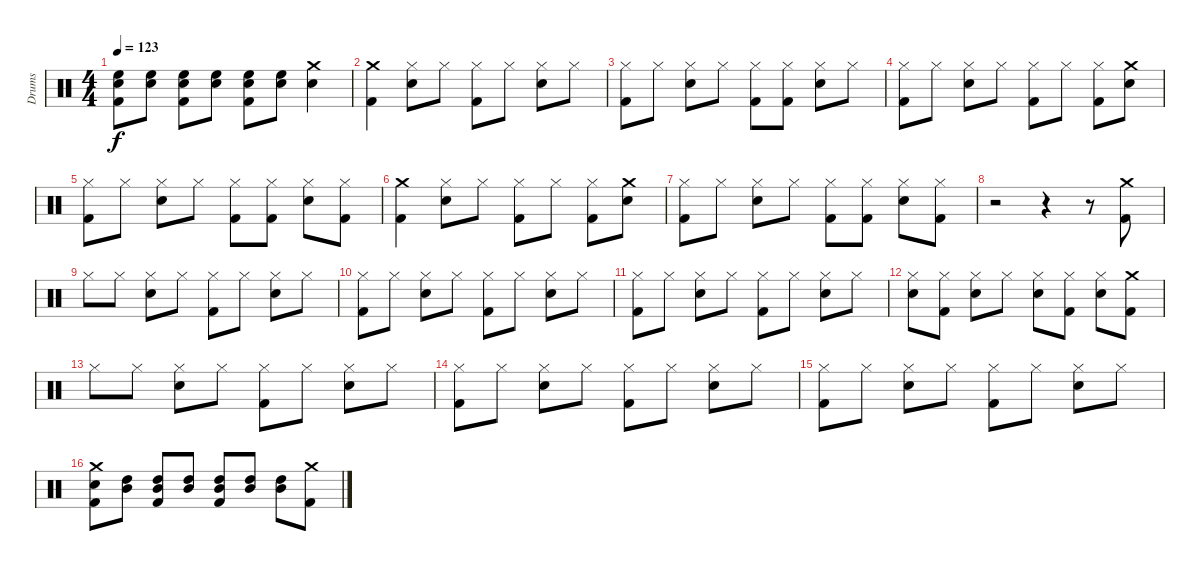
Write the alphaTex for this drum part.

\track ("Drums" "Drums") {instrument percussion}
\staff {score}
\articulation defaults
\ts (4 4)
\tempo 123
\clef neutral
\ks c
("Kick (hit) 2" "Snare (hit) 2" "High Floor Tom (hit)").8{dy f} ("Snare (hit) 2" "High Floor Tom (hit)").8 ("Kick (hit) 2" "Snare (hit) 2" "High Floor Tom (hit)").8 ("Snare (hit) 2" "High Floor Tom (hit)").8 ("Kick (hit) 2" "Snare (hit) 2" "High Floor Tom (hit)").8 ("Snare (hit) 2" "High Floor Tom (hit)").8 ("Crash medium (hit)" "Snare (hit) 2").4 |
("Kick (hit) 2" "Crash medium (hit)").4 ("Snare (hit) 2" "Hi-Hat (closed)").8 "Hi-Hat (closed)".8 ("Hi-Hat (closed)" "Kick (hit) 2").8 "Hi-Hat (closed)".8 ("Snare (hit) 2" "Hi-Hat (closed)").8 "Hi-Hat (closed)".8 |
("Hi-Hat (closed)" "Kick (hit) 2").8 "Hi-Hat (closed)".8 ("Snare (hit) 2" "Hi-Hat (closed)").8 "Hi-Hat (closed)".8 ("Kick (hit) 2" "Hi-Hat (closed)").8 ("Kick (hit) 2" "Hi-Hat (closed)").8 ("Snare (hit) 2" "Hi-Hat (closed)").8 "Hi-Hat (closed)".8 |
("Hi-Hat (closed)" "Kick (hit) 2").8 "Hi-Hat (closed)".8 ("Snare (hit) 2" "Hi-Hat (closed)").8 "Hi-Hat (closed)".8 ("Hi-Hat (closed)" "Kick (hit) 2").8 "Hi-Hat (closed)".8 ("Hi-Hat (closed)" "Kick (hit) 2").8 ("Crash medium (hit)" "Snare (hit) 2").8 |
("Hi-Hat (closed)" "Kick (hit) 2").8 "Hi-Hat (closed)".8 ("Snare (hit) 2" "Hi-Hat (closed)").8 "Hi-Hat (closed)".8 ("Kick (hit) 2" "Hi-Hat (closed)").8 ("Kick (hit) 2" "Hi-Hat (closed)").8 ("Snare (hit) 2" "Hi-Hat (closed)").8 ("Kick (hit) 2" "Hi-Hat (closed)").8 |
("Kick (hit) 2" "Crash medium (hit)").4 ("Hi-Hat (closed)" "Snare (hit) 2").8 "Hi-Hat (closed)".8 ("Kick (hit) 2" "Hi-Hat (closed)").8 "Hi-Hat (closed)".8 ("Kick (hit) 2" "Hi-Hat (closed)").8 ("Crash medium (hit)" "Snare (hit) 2").8 |
("Kick (hit) 2" "Hi-Hat (closed)").8 "Hi-Hat (closed)".8 ("Snare (hit) 2" "Hi-Hat (closed)").8 "Hi-Hat (closed)".8 ("Kick (hit) 2" "Hi-Hat (closed)").8 ("Kick (hit) 2" "Hi-Hat (closed)").8 ("Snare (hit) 2" "Hi-Hat (closed)").8 ("Kick (hit) 2" "Hi-Hat (closed)").8 |
r.2 r.4 r.8 ("Kick (hit) 2" "Crash medium (hit)").8 |
"Hi-Hat (closed)".8 "Hi-Hat (closed)".8 ("Snare (hit) 2" "Hi-Hat (closed)").8 "Hi-Hat (closed)".8 ("Kick (hit) 2" "Hi-Hat (closed)").8 "Hi-Hat (closed)".8 ("Snare (hit) 2" "Hi-Hat (closed)").8 "Hi-Hat (closed)".8 |
("Kick (hit) 2" "Hi-Hat (closed)").8 "Hi-Hat (closed)".8 ("Snare (hit) 2" "Hi-Hat (closed)").8 "Hi-Hat (closed)".8 ("Kick (hit) 2" "Hi-Hat (closed)").8 "Hi-Hat (closed)".8 ("Snare (hit) 2" "Hi-Hat (closed)").8 "Hi-Hat (closed)".8 |
("Kick (hit) 2" "Hi-Hat (closed)").8 "Hi-Hat (closed)".8 ("Snare (hit) 2" "Hi-Hat (closed)").8 "Hi-Hat (closed)".8 ("Kick (hit) 2" "Hi-Hat (closed)").8 "Hi-Hat (closed)".8 ("Snare (hit) 2" "Hi-Hat (closed)").8 "Hi-Hat (closed)".8 |
("Snare (hit) 2" "Hi-Hat (closed)").8 ("Kick (hit) 2" "Hi-Hat (closed)").8 ("Snare (hit) 2" "Hi-Hat (closed)").8 "Hi-Hat (closed)".8 ("Snare (hit) 2" "Hi-Hat (closed)").8 ("Kick (hit) 2" "Hi-Hat (closed)").8 ("Snare (hit) 2" "Hi-Hat (closed)").8 ("Kick (hit) 2" "Crash medium (hit)").8 |
"Hi-Hat (closed)".8 "Hi-Hat (closed)".8 ("Snare (hit) 2" "Hi-Hat (closed)").8 "Hi-Hat (closed)".8 ("Kick (hit) 2" "Hi-Hat (closed)").8 "Hi-Hat (closed)".8 ("Snare (hit) 2" "Hi-Hat (closed)").8 "Hi-Hat (closed)".8 |
("Kick (hit) 2" "Hi-Hat (closed)").8 "Hi-Hat (closed)".8 ("Snare (hit) 2" "Hi-Hat (closed)").8 "Hi-Hat (closed)".8 ("Kick (hit) 2" "Hi-Hat (closed)").8 "Hi-Hat (closed)".8 ("Snare (hit) 2" "Hi-Hat (closed)").8 "Hi-Hat (closed)".8 |
("Kick (hit) 2" "Hi-Hat (closed)").8 "Hi-Hat (closed)".8 ("Snare (hit) 2" "Hi-Hat (closed)").8 "Hi-Hat (closed)".8 ("Kick (hit) 2" "Hi-Hat (closed)").8 "Hi-Hat (closed)".8 ("Snare (hit) 2" "Hi-Hat (closed)").8 "Hi-Hat (closed)".8 |
("Kick (hit) 2" "Snare (hit) 2" "Crash medium (hit)").8 ("High Tom (hit)" "Mid Tom (hit)").8 ("Kick (hit) 2" "High Tom (hit)" "Mid Tom (hit)").8 ("High Tom (hit)" "Mid Tom (hit)").8 ("Kick (hit) 2" "High Tom (hit)" "Mid Tom (hit)").8 ("High Tom (hit)" "Mid Tom (hit)").8 ("High Tom (hit)" "Mid Tom (hit)").8 ("Crash medium (hit)" "Kick (hit) 2").8
